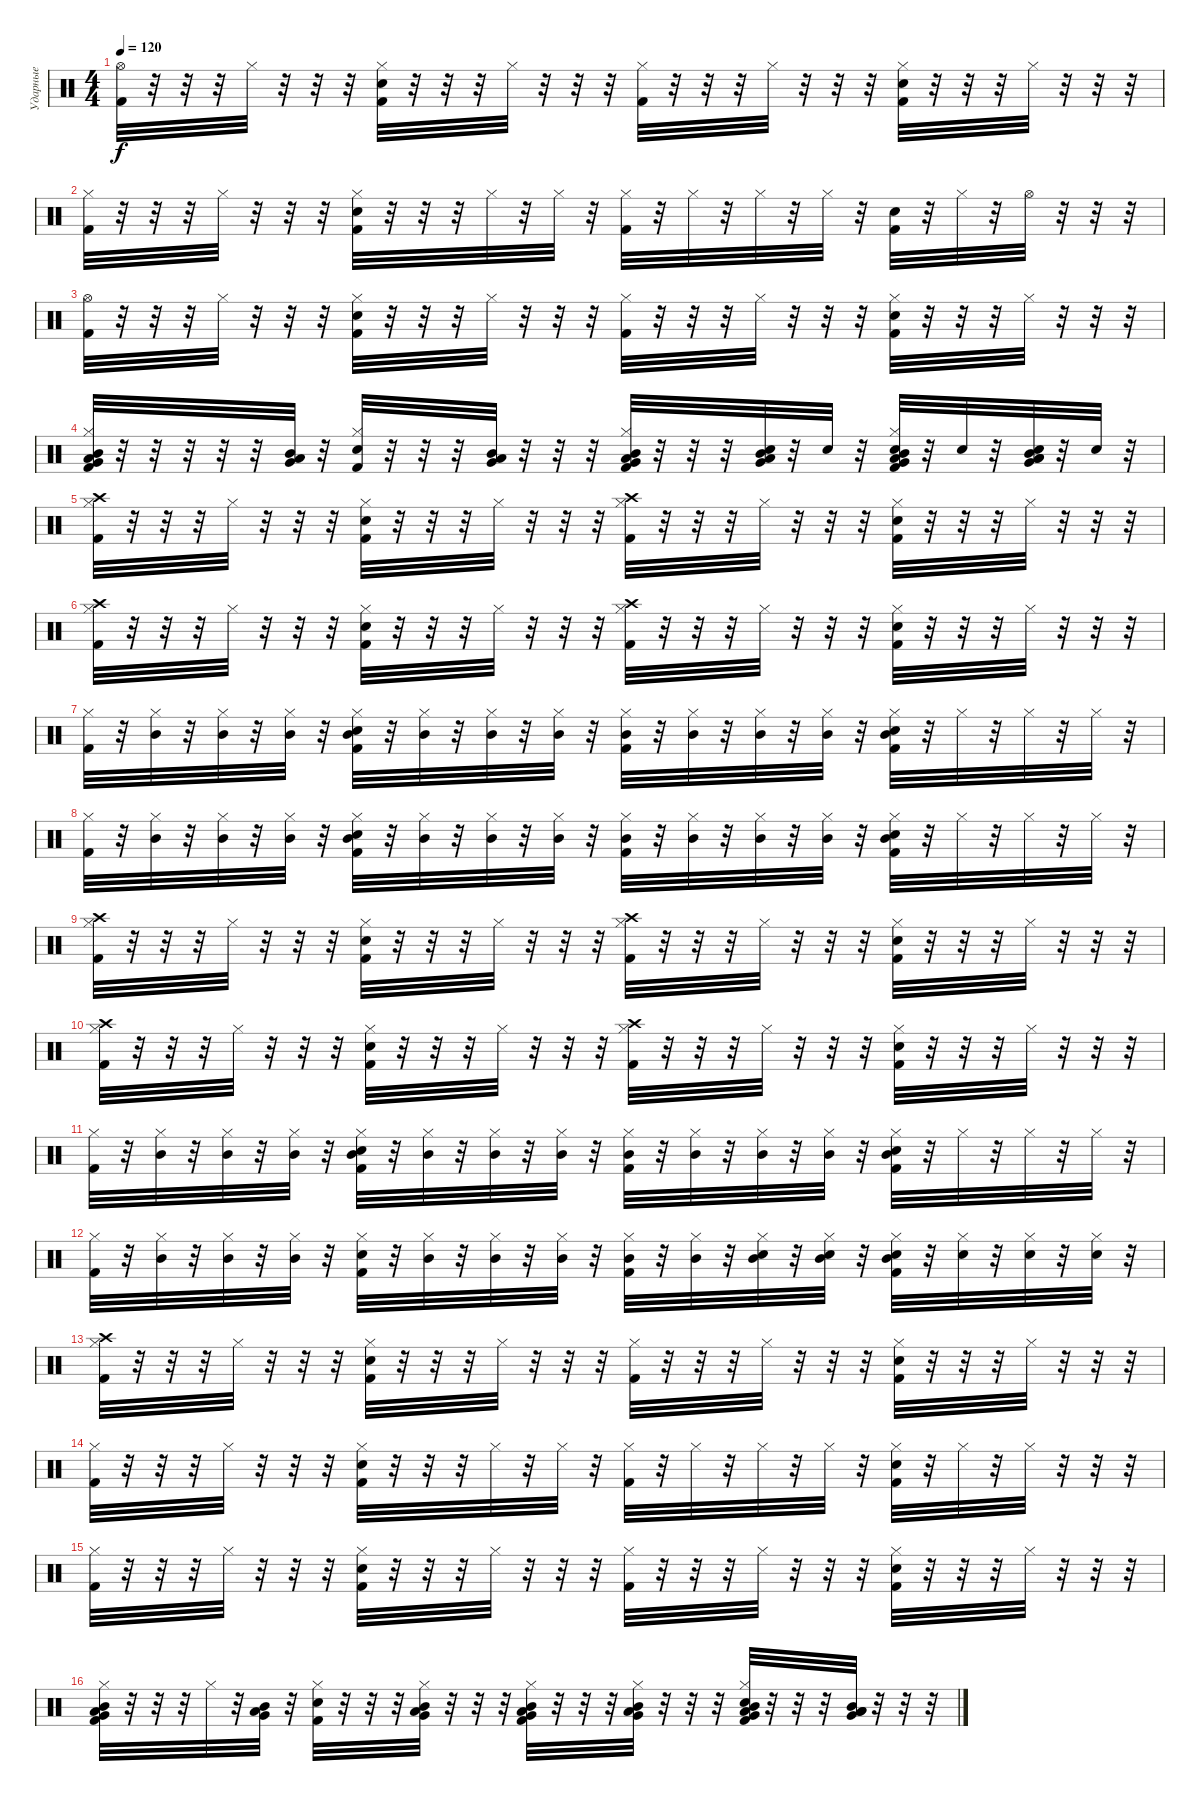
\track ("Ударные" "Ударные") {instrument percussion}
\staff {score}
\articulation defaults
\ts (4 4)
\tempo 120
\clef neutral
\ks c
("Hi-Hat (open)" "Kick (hit) 2").32{dy f} r.32 r.32 r.32 "Hi-Hat (closed)".32 r.32 r.32 r.32 ("Hi-Hat (closed)" "Kick (hit) 2" "Snare (hit) 2").32 r.32 r.32 r.32 "Hi-Hat (closed)".32 r.32 r.32 r.32 ("Hi-Hat (closed)" "Kick (hit) 2").32 r.32 r.32 r.32 "Hi-Hat (closed)".32 r.32 r.32 r.32 ("Snare (hit) 2" "Kick (hit) 2" "Hi-Hat (closed)").32 r.32 r.32 r.32 "Hi-Hat (closed)".32 r.32 r.32 r.32 |
("Hi-Hat (closed)" "Kick (hit) 2").32 r.32 r.32 r.32 "Hi-Hat (closed)".32 r.32 r.32 r.32 ("Hi-Hat (closed)" "Kick (hit) 2" "Snare (hit) 2").32 r.32 r.32 r.32 "Hi-Hat (closed)".32 r.32 "Hi-Hat (closed)".32 r.32 ("Hi-Hat (closed)" "Kick (hit) 2").32 r.32 "Hi-Hat (closed)".32 r.32 "Hi-Hat (closed)".32 r.32 "Hi-Hat (closed)".32 r.32 ("Snare (hit) 2" "Kick (hit) 2").32 r.32 "Hi-Hat (closed)".32 r.32 "Hi-Hat (open)".32 r.32 r.32 r.32 |
("Hi-Hat (open)" "Kick (hit) 2").32 r.32 r.32 r.32 "Hi-Hat (closed)".32 r.32 r.32 r.32 ("Hi-Hat (closed)" "Kick (hit) 2" "Snare (hit) 2").32 r.32 r.32 r.32 "Hi-Hat (closed)".32 r.32 r.32 r.32 ("Hi-Hat (closed)" "Kick (hit) 2").32 r.32 r.32 r.32 "Hi-Hat (closed)".32 r.32 r.32 r.32 ("Snare (hit) 2" "Kick (hit) 2" "Hi-Hat (closed)").32 r.32 r.32 r.32 "Hi-Hat (closed)".32 r.32 r.32 r.32 |
("Very Low Tom (hit)" "Hi-Hat (closed)" "Kick (hit) 2" "Low Tom (hit)" "Mid Tom (hit)").32 r.32 r.32 r.32 r.32 r.32 ("Very Low Tom (hit)" "Low Tom (hit)" "Mid Tom (hit)").32 r.32 ("Hi-Hat (closed)" "Kick (hit) 2" "Snare (hit) 2").32 r.32 r.32 r.32 ("Very Low Tom (hit)" "Low Tom (hit)" "Mid Tom (hit)").32 r.32 r.32 r.32 ("Very Low Tom (hit)" "Hi-Hat (closed)" "Kick (hit) 2" "Mid Tom (hit)" "Low Tom (hit)").32 r.32 r.32 r.32 ("Very Low Tom (hit)" "Snare (hit) 2" "Mid Tom (hit)" "Low Tom (hit)").32 r.32 "Snare (hit) 2".32 r.32 ("Very Low Tom (hit)" "Snare (hit) 2" "Hi-Hat (closed)" "Kick (hit) 2" "Mid Tom (hit)" "Low Tom (hit)").32 r.32 "Snare (hit) 2".32 r.32 ("Very Low Tom (hit)" "Snare (hit) 2" "Mid Tom (hit)" "Low Tom (hit)" "Low Tom (hit)").32 r.32 "Snare (hit) 2".32 r.32 |
("Crash high (hit)" "Hi-Hat (closed)" "Kick (hit) 2").32 r.32 r.32 r.32 "Hi-Hat (closed)".32 r.32 r.32 r.32 ("Hi-Hat (closed)" "Kick (hit) 2" "Snare (hit) 2").32 r.32 r.32 r.32 "Hi-Hat (closed)".32 r.32 r.32 r.32 ("Crash high (hit)" "Hi-Hat (closed)" "Kick (hit) 2").32 r.32 r.32 r.32 "Hi-Hat (closed)".32 r.32 r.32 r.32 ("Snare (hit) 2" "Kick (hit) 2" "Hi-Hat (closed)").32 r.32 r.32 r.32 "Hi-Hat (closed)".32 r.32 r.32 r.32 |
("Crash high (hit)" "Hi-Hat (closed)" "Kick (hit) 2").32 r.32 r.32 r.32 "Hi-Hat (closed)".32 r.32 r.32 r.32 ("Hi-Hat (closed)" "Kick (hit) 2" "Snare (hit) 2").32 r.32 r.32 r.32 "Hi-Hat (closed)".32 r.32 r.32 r.32 ("Crash high (hit)" "Hi-Hat (closed)" "Kick (hit) 2").32 r.32 r.32 r.32 "Hi-Hat (closed)".32 r.32 r.32 r.32 ("Snare (hit) 2" "Kick (hit) 2" "Hi-Hat (closed)").32 r.32 r.32 r.32 "Hi-Hat (closed)".32 r.32 r.32 r.32 |
("Hi-Hat (closed)" "Kick (hit) 2").32 r.32 ("Hi-Hat (closed)" "Mid Tom (hit)").32 r.32 ("Hi-Hat (closed)" "Mid Tom (hit)").32 r.32 ("Hi-Hat (closed)" "Mid Tom (hit)").32 r.32 ("Hi-Hat (closed)" "Kick (hit) 2" "Snare (hit) 2" "Mid Tom (hit)").32 r.32 ("Hi-Hat (closed)" "Mid Tom (hit)").32 r.32 ("Hi-Hat (closed)" "Mid Tom (hit)").32 r.32 ("Hi-Hat (closed)" "Mid Tom (hit)").32 r.32 ("Hi-Hat (closed)" "Kick (hit) 2" "Mid Tom (hit)").32 r.32 ("Hi-Hat (closed)" "Mid Tom (hit)").32 r.32 ("Hi-Hat (closed)" "Mid Tom (hit)").32 r.32 ("Hi-Hat (closed)" "Mid Tom (hit)").32 r.32 ("Snare (hit) 2" "Kick (hit) 2" "Hi-Hat (closed)" "Mid Tom (hit)").32 r.32 "Hi-Hat (closed)".32 r.32 "Hi-Hat (closed)".32 r.32 "Hi-Hat (closed)".32 r.32 |
("Hi-Hat (closed)" "Kick (hit) 2").32 r.32 ("Hi-Hat (closed)" "Mid Tom (hit)").32 r.32 ("Hi-Hat (closed)" "Mid Tom (hit)").32 r.32 ("Hi-Hat (closed)" "Mid Tom (hit)").32 r.32 ("Hi-Hat (closed)" "Kick (hit) 2" "Snare (hit) 2" "Mid Tom (hit)").32 r.32 ("Hi-Hat (closed)" "Mid Tom (hit)").32 r.32 ("Hi-Hat (closed)" "Mid Tom (hit)").32 r.32 ("Hi-Hat (closed)" "Mid Tom (hit)").32 r.32 ("Hi-Hat (closed)" "Kick (hit) 2" "Mid Tom (hit)").32 r.32 ("Hi-Hat (closed)" "Mid Tom (hit)").32 r.32 ("Hi-Hat (closed)" "Mid Tom (hit)").32 r.32 ("Hi-Hat (closed)" "Mid Tom (hit)").32 r.32 ("Snare (hit) 2" "Kick (hit) 2" "Hi-Hat (closed)" "Mid Tom (hit)").32 r.32 "Hi-Hat (closed)".32 r.32 "Hi-Hat (closed)".32 r.32 "Hi-Hat (closed)".32 r.32 |
("Crash high (hit)" "Hi-Hat (closed)" "Kick (hit) 2").32 r.32 r.32 r.32 "Hi-Hat (closed)".32 r.32 r.32 r.32 ("Hi-Hat (closed)" "Kick (hit) 2" "Snare (hit) 2").32 r.32 r.32 r.32 "Hi-Hat (closed)".32 r.32 r.32 r.32 ("Crash high (hit)" "Hi-Hat (closed)" "Kick (hit) 2").32 r.32 r.32 r.32 "Hi-Hat (closed)".32 r.32 r.32 r.32 ("Snare (hit) 2" "Kick (hit) 2" "Hi-Hat (closed)").32 r.32 r.32 r.32 "Hi-Hat (closed)".32 r.32 r.32 r.32 |
("Crash high (hit)" "Hi-Hat (closed)" "Kick (hit) 2").32 r.32 r.32 r.32 "Hi-Hat (closed)".32 r.32 r.32 r.32 ("Hi-Hat (closed)" "Kick (hit) 2" "Snare (hit) 2").32 r.32 r.32 r.32 "Hi-Hat (closed)".32 r.32 r.32 r.32 ("Crash high (hit)" "Hi-Hat (closed)" "Kick (hit) 2").32 r.32 r.32 r.32 "Hi-Hat (closed)".32 r.32 r.32 r.32 ("Snare (hit) 2" "Kick (hit) 2" "Hi-Hat (closed)").32 r.32 r.32 r.32 "Hi-Hat (closed)".32 r.32 r.32 r.32 |
("Hi-Hat (closed)" "Kick (hit) 2").32 r.32 ("Hi-Hat (closed)" "Mid Tom (hit)").32 r.32 ("Hi-Hat (closed)" "Mid Tom (hit)").32 r.32 ("Hi-Hat (closed)" "Mid Tom (hit)").32 r.32 ("Hi-Hat (closed)" "Kick (hit) 2" "Snare (hit) 2" "Mid Tom (hit)").32 r.32 ("Hi-Hat (closed)" "Mid Tom (hit)").32 r.32 ("Hi-Hat (closed)" "Mid Tom (hit)").32 r.32 ("Hi-Hat (closed)" "Mid Tom (hit)").32 r.32 ("Hi-Hat (closed)" "Kick (hit) 2" "Mid Tom (hit)").32 r.32 ("Hi-Hat (closed)" "Mid Tom (hit)").32 r.32 ("Hi-Hat (closed)" "Mid Tom (hit)").32 r.32 ("Hi-Hat (closed)" "Mid Tom (hit)").32 r.32 ("Snare (hit) 2" "Kick (hit) 2" "Hi-Hat (closed)" "Mid Tom (hit)").32 r.32 "Hi-Hat (closed)".32 r.32 "Hi-Hat (closed)".32 r.32 "Hi-Hat (closed)".32 r.32 |
("Hi-Hat (closed)" "Kick (hit) 2").32 r.32 ("Mid Tom (hit)" "Hi-Hat (closed)").32 r.32 ("Mid Tom (hit)" "Hi-Hat (closed)").32 r.32 ("Mid Tom (hit)" "Hi-Hat (closed)").32 r.32 ("Hi-Hat (closed)" "Kick (hit) 2" "Snare (hit) 2").32 r.32 ("Mid Tom (hit)" "Hi-Hat (closed)").32 r.32 ("Mid Tom (hit)" "Hi-Hat (closed)").32 r.32 ("Mid Tom (hit)" "Hi-Hat (closed)").32 r.32 ("Mid Tom (hit)" "Hi-Hat (closed)" "Kick (hit) 2").32 r.32 ("Mid Tom (hit)" "Hi-Hat (closed)").32 r.32 ("Mid Tom (hit)" "Snare (hit) 2" "Hi-Hat (closed)").32 r.32 ("Mid Tom (hit)" "Snare (hit) 2" "Hi-Hat (closed)").32 r.32 ("Mid Tom (hit)" "Snare (hit) 2" "Kick (hit) 2" "Hi-Hat (closed)").32 r.32 ("Snare (hit) 2" "Hi-Hat (closed)").32 r.32 ("Snare (hit) 2" "Hi-Hat (closed)").32 r.32 ("Snare (hit) 2" "Hi-Hat (closed)").32 r.32 |
("Crash high (hit)" "Hi-Hat (closed)" "Kick (hit) 2").32 r.32 r.32 r.32 "Hi-Hat (closed)".32 r.32 r.32 r.32 ("Hi-Hat (closed)" "Kick (hit) 2" "Snare (hit) 2").32 r.32 r.32 r.32 "Hi-Hat (closed)".32 r.32 r.32 r.32 ("Hi-Hat (closed)" "Kick (hit) 2").32 r.32 r.32 r.32 "Hi-Hat (closed)".32 r.32 r.32 r.32 ("Snare (hit) 2" "Kick (hit) 2" "Hi-Hat (closed)").32 r.32 r.32 r.32 "Hi-Hat (closed)".32 r.32 r.32 r.32 |
("Hi-Hat (closed)" "Kick (hit) 2").32 r.32 r.32 r.32 "Hi-Hat (closed)".32 r.32 r.32 r.32 ("Hi-Hat (closed)" "Kick (hit) 2" "Snare (hit) 2").32 r.32 r.32 r.32 "Hi-Hat (closed)".32 r.32 "Hi-Hat (closed)".32 r.32 ("Hi-Hat (closed)" "Kick (hit) 2").32 r.32 "Hi-Hat (closed)".32 r.32 "Hi-Hat (closed)".32 r.32 "Hi-Hat (closed)".32 r.32 ("Snare (hit) 2" "Kick (hit) 2" "Hi-Hat (closed)").32 r.32 "Hi-Hat (closed)".32 r.32 "Hi-Hat (closed)".32 r.32 r.32 r.32 |
("Hi-Hat (closed)" "Kick (hit) 2").32 r.32 r.32 r.32 "Hi-Hat (closed)".32 r.32 r.32 r.32 ("Hi-Hat (closed)" "Kick (hit) 2" "Snare (hit) 2").32 r.32 r.32 r.32 "Hi-Hat (closed)".32 r.32 r.32 r.32 ("Hi-Hat (closed)" "Kick (hit) 2").32 r.32 r.32 r.32 "Hi-Hat (closed)".32 r.32 r.32 r.32 ("Snare (hit) 2" "Kick (hit) 2" "Hi-Hat (closed)").32 r.32 r.32 r.32 "Hi-Hat (closed)".32 r.32 r.32 r.32 |
("Very Low Tom (hit)" "Hi-Hat (closed)" "Kick (hit) 2" "Low Tom (hit)" "Mid Tom (hit)").32 r.32 r.32 r.32 "Hi-Hat (closed)".32 r.32 ("Very Low Tom (hit)" "Low Tom (hit)" "Mid Tom (hit)").32 r.32 ("Snare (hit) 2" "Hi-Hat (closed)" "Kick (hit) 2").32 r.32 r.32 r.32 ("Very Low Tom (hit)" "Hi-Hat (closed)" "Low Tom (hit)" "Mid Tom (hit)").32 r.32 r.32 r.32 ("Very Low Tom (hit)" "Hi-Hat (closed)" "Kick (hit) 2" "Mid Tom (hit)" "Low Tom (hit)").32 r.32 r.32 r.32 ("Very Low Tom (hit)" "Hi-Hat (closed)" "Mid Tom (hit)" "Low Tom (hit)").32 r.32 r.32 r.32 ("Very Low Tom (hit)" "Snare (hit) 2" "Hi-Hat (closed)" "Kick (hit) 2" "Mid Tom (hit)" "Low Tom (hit)").32 r.32 r.32 r.32 ("Very Low Tom (hit)" "Mid Tom (hit)" "Low Tom (hit)" "Low Tom (hit)").32 r.32 r.32 r.32
